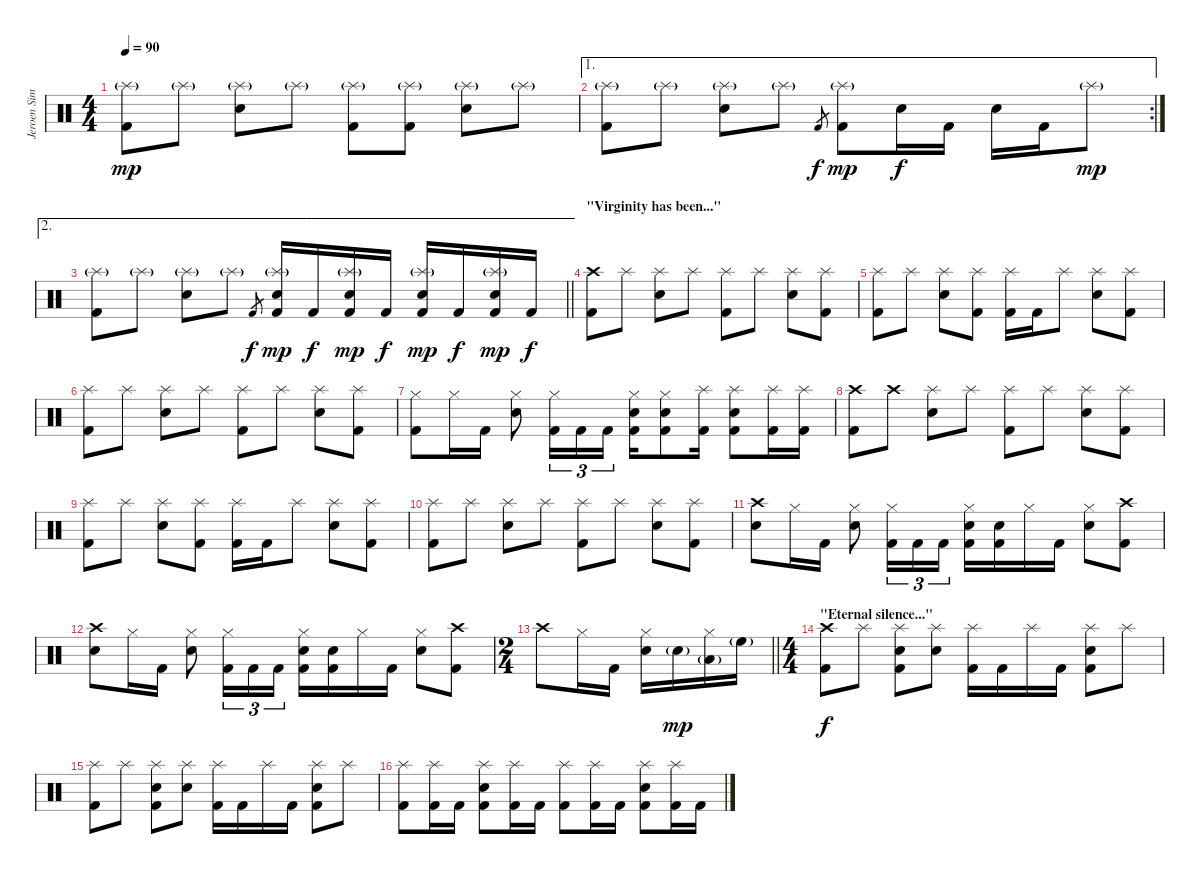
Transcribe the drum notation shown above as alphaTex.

\track ("Jeroen Simons" "Jeroen Sim") {instrument percussion}
\staff {score}
\articulation defaults
\ts (4 4)
\tempo 90
\clef neutral
\ks c
("Kick (hit) 2" "Splash (hit)"{g}).8{dy mp} "Splash (hit)"{g}.8 ("Snare (hit) 2" "Splash (hit)"{g}).8 "Splash (hit)"{g}.8 ("Kick (hit) 2" "Splash (hit)"{g}).8 ("Kick (hit) 2" "Splash (hit)"{g}).8 ("Snare (hit) 2" "Splash (hit)"{g}).8 "Splash (hit)"{g}.8 |
\ae 1
\rc 2
("Kick (hit) 2" "Splash (hit)"{g}).8 "Splash (hit)"{g}.8 ("Snare (hit) 2" "Splash (hit)"{g}).8 "Splash (hit)"{g}.8 "Kick (hit) 2".8{gr dy f} ("Kick (hit) 2" "Splash (hit)"{g}).8{dy mp} "Snare (hit) 2".16{dy f} "Kick (hit) 2".16 "Snare (hit) 2".16 "Kick (hit) 2".16 "Splash (hit)"{g}.8{dy mp} |
\ae 2
\barLineRight lightlight
("Kick (hit) 2" "Splash (hit)"{g}).8 "Splash (hit)"{g}.8 ("Snare (hit) 2" "Splash (hit)"{g}).8 "Splash (hit)"{g}.8 "Kick (hit) 2".8{gr dy f} ("Kick (hit) 2" "Snare (hit) 2" "Splash (hit)"{g}).16{dy mp} "Kick (hit) 2".16{dy f} ("Kick (hit) 2" "Snare (hit) 2" "Splash (hit)"{g}).16{dy mp} "Kick (hit) 2".16{dy f} ("Kick (hit) 2" "Snare (hit) 2" "Splash (hit)"{g}).16{dy mp} "Kick (hit) 2".16{dy f} ("Kick (hit) 2" "Snare (hit) 2" "Splash (hit)"{g}).16{dy mp} "Kick (hit) 2".16{dy f} |
\section ("" "\"Virginity has been...\"")
("Kick (hit) 2" "Crash high (hit)").8 "Splash (hit)".8 ("Snare (hit) 2" "Splash (hit)").8 "Splash (hit)".8 ("Kick (hit) 2" "Splash (hit)").8 "Splash (hit)".8 ("Snare (hit) 2" "Splash (hit)").8 ("Kick (hit) 2" "Splash (hit)").8 |
("Kick (hit) 2" "Splash (hit)").8 "Splash (hit)".8 ("Snare (hit) 2" "Splash (hit)").8 ("Kick (hit) 2" "Splash (hit)").8 ("Kick (hit) 2" "Splash (hit)").16 "Kick (hit) 2".16 "Splash (hit)".8 ("Snare (hit) 2" "Splash (hit)").8 ("Kick (hit) 2" "Splash (hit)").8 |
("Kick (hit) 2" "Splash (hit)").8 "Splash (hit)".8 ("Snare (hit) 2" "Splash (hit)").8 "Splash (hit)".8 ("Kick (hit) 2" "Splash (hit)").8 "Splash (hit)".8 ("Snare (hit) 2" "Splash (hit)").8 ("Kick (hit) 2" "Splash (hit)").8 |
("Kick (hit) 2" "Hi-Hat (closed)").8 "Hi-Hat (closed)".16 "Kick (hit) 2".16 ("Snare (hit) 2" "Hi-Hat (closed)").8 ("Kick (hit) 2" "Hi-Hat (closed)").16{tu (3 2)} "Kick (hit) 2".16{tu (3 2)} "Kick (hit) 2".16{tu (3 2)} ("Kick (hit) 2" "Snare (hit) 2" "Hi-Hat (closed)").16 ("Kick (hit) 2" "Snare (hit) 2" "Hi-Hat (closed)").8 ("Kick (hit) 2" "Splash (hit)").16 ("Kick (hit) 2" "Snare (hit) 2" "Splash (hit)").8 ("Kick (hit) 2" "Splash (hit)").16 ("Kick (hit) 2" "Splash (hit)").16 |
("Kick (hit) 2" "Crash high (hit)").8 "Crash high (hit)".8 ("Snare (hit) 2" "Splash (hit)").8 "Splash (hit)".8 ("Kick (hit) 2" "Splash (hit)").8 "Splash (hit)".8 ("Snare (hit) 2" "Splash (hit)").8 ("Kick (hit) 2" "Splash (hit)").8 |
("Kick (hit) 2" "Splash (hit)").8 "Splash (hit)".8 ("Snare (hit) 2" "Splash (hit)").8 ("Kick (hit) 2" "Splash (hit)").8 ("Kick (hit) 2" "Splash (hit)").16 "Kick (hit) 2".16 "Splash (hit)".8 ("Snare (hit) 2" "Splash (hit)").8 ("Kick (hit) 2" "Splash (hit)").8 |
("Kick (hit) 2" "Splash (hit)").8 "Splash (hit)".8 ("Snare (hit) 2" "Splash (hit)").8 "Splash (hit)".8 ("Kick (hit) 2" "Splash (hit)").8 "Splash (hit)".8 ("Snare (hit) 2" "Splash (hit)").8 ("Kick (hit) 2" "Splash (hit)").8 |
("Snare (hit) 2" "Crash high (hit)").8 "Hi-Hat (closed)".16 "Kick (hit) 2".16 ("Snare (hit) 2" "Hi-Hat (closed)").8 ("Kick (hit) 2" "Hi-Hat (closed)").16{tu (3 2)} "Kick (hit) 2".16{tu (3 2)} "Kick (hit) 2".16{tu (3 2)} ("Kick (hit) 2" "Snare (hit) 2" "Hi-Hat (closed)").16 ("Kick (hit) 2" "Snare (hit) 2").16 "Hi-Hat (closed)".16 "Kick (hit) 2".16 ("Snare (hit) 2" "Hi-Hat (closed)").8 ("Kick (hit) 2" "Crash high (hit)").8 |
("Snare (hit) 2" "Crash high (hit)").8 "Hi-Hat (closed)".16 "Kick (hit) 2".16 ("Snare (hit) 2" "Hi-Hat (closed)").8 ("Kick (hit) 2" "Hi-Hat (closed)").16{tu (3 2)} "Kick (hit) 2".16{tu (3 2)} "Kick (hit) 2".16{tu (3 2)} ("Kick (hit) 2" "Snare (hit) 2" "Hi-Hat (closed)").16 ("Kick (hit) 2" "Snare (hit) 2").16 "Hi-Hat (closed)".16 "Kick (hit) 2".16 ("Snare (hit) 2" "Hi-Hat (closed)").8 ("Kick (hit) 2" "Crash high (hit)").8 |
\ts (2 4)
\barLineRight lightlight "Crash high (hit)".8 "Hi-Hat (closed)".16 "Kick (hit) 2".16
("Snare (hit) 2" "Hi-Hat (closed)").16 "Snare (hit) 2"{g}.16{dy mp} ("Low Tom (hit)"{g} "Hi-Hat (closed)").16 "High Floor Tom (hit)"{g}.16 |
\ts (4 4)
\section ("" "\"Eternal silence...\"")
("Kick (hit) 2" "Crash high (hit)").8{dy f} "Splash (hit)".8 ("Kick (hit) 2" "Snare (hit) 2" "Splash (hit)").8 ("Snare (hit) 2" "Splash (hit)").8 ("Kick (hit) 2" "Splash (hit)").16 "Kick (hit) 2".16 "Splash (hit)".16 "Kick (hit) 2".16 ("Kick (hit) 2" "Snare (hit) 2" "Splash (hit)").8 "Splash (hit)".8 |
("Kick (hit) 2" "Splash (hit)").8 "Splash (hit)".8 ("Kick (hit) 2" "Snare (hit) 2" "Splash (hit)").8 ("Snare (hit) 2" "Splash (hit)").8 ("Kick (hit) 2" "Splash (hit)").16 "Kick (hit) 2".16 "Splash (hit)".16 "Kick (hit) 2".16 ("Kick (hit) 2" "Snare (hit) 2" "Splash (hit)").8 "Splash (hit)".8 |
("Kick (hit) 2" "Splash (hit)").8 ("Kick (hit) 2" "Splash (hit)").16 "Kick (hit) 2".16 ("Kick (hit) 2" "Snare (hit) 2" "Splash (hit)").8 ("Kick (hit) 2" "Splash (hit)").16 "Kick (hit) 2".16 ("Kick (hit) 2" "Splash (hit)").8 ("Kick (hit) 2" "Splash (hit)").16 "Kick (hit) 2".16 ("Kick (hit) 2" "Snare (hit) 2" "Splash (hit)").8 ("Kick (hit) 2" "Splash (hit)").16 "Kick (hit) 2".16
